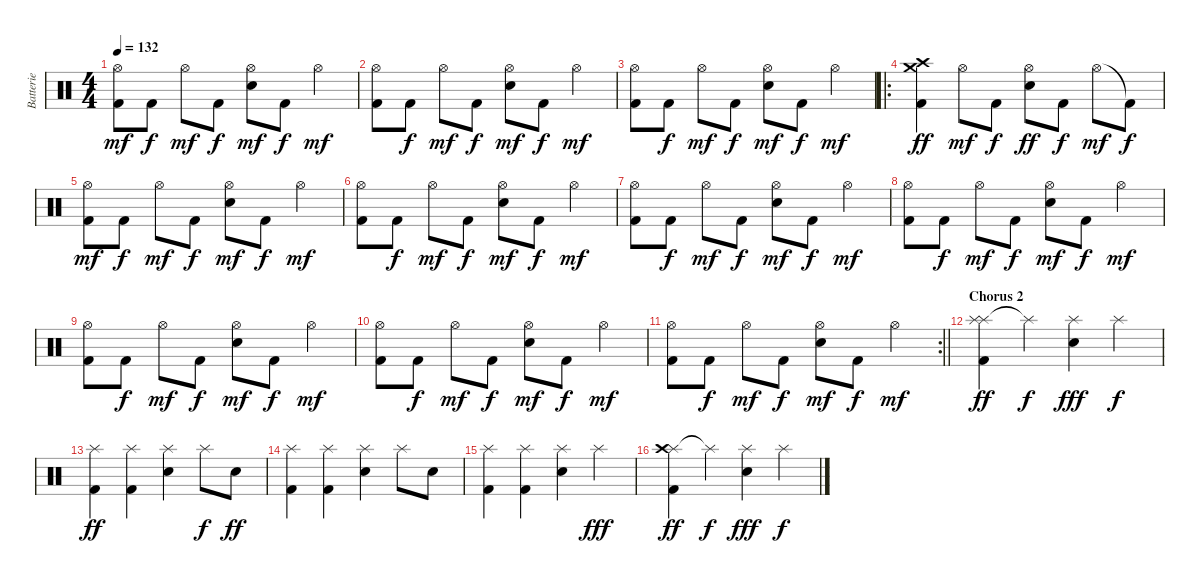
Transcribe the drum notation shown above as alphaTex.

\track ("Batterie" "Batterie") {instrument percussion}
\staff {score}
\articulation defaults
\ts (4 4)
\tempo 132
\clef neutral
\ks c
("Hi-Hat (open)" "Kick (hit) 2").8{dy mf} "Kick (hit) 2".8{dy f} "Hi-Hat (open)".8{dy mf} "Kick (hit) 2".8{dy f} ("Hi-Hat (open)" "Electric Snare (hit)").8{dy mf} "Kick (hit) 2".8{dy f} "Hi-Hat (open)".4{dy mf} |
("Hi-Hat (open)" "Kick (hit) 2").8 "Kick (hit) 2".8{dy f} "Hi-Hat (open)".8{dy mf} "Kick (hit) 2".8{dy f} ("Hi-Hat (open)" "Electric Snare (hit)").8{dy mf} "Kick (hit) 2".8{dy f} "Hi-Hat (open)".4{dy mf} |
("Hi-Hat (open)" "Kick (hit) 2").8 "Kick (hit) 2".8{dy f} "Hi-Hat (open)".8{dy mf} "Kick (hit) 2".8{dy f} ("Hi-Hat (open)" "Electric Snare (hit)").8{dy mf} "Kick (hit) 2".8{dy f} "Hi-Hat (open)".4{dy mf} |
\ro
("Crash high (hit)" "Crash medium (hit)" "Kick (hit) 2").4{dy ff} "Hi-Hat (open)".8{dy mf} "Kick (hit) 2".8{dy f} ("Hi-Hat (open)" "Electric Snare (hit)").8{dy ff} "Kick (hit) 2".8{dy f} "Hi-Hat (open)".8{dy mf} "Kick (hit) 2"{t}.8{dy f} |
("Hi-Hat (open)" "Kick (hit) 2").8{dy mf} "Kick (hit) 2".8{dy f} "Hi-Hat (open)".8{dy mf} "Kick (hit) 2".8{dy f} ("Hi-Hat (open)" "Electric Snare (hit)").8{dy mf} "Kick (hit) 2".8{dy f} "Hi-Hat (open)".4{dy mf} |
("Hi-Hat (open)" "Kick (hit) 2").8 "Kick (hit) 2".8{dy f} "Hi-Hat (open)".8{dy mf} "Kick (hit) 2".8{dy f} ("Hi-Hat (open)" "Electric Snare (hit)").8{dy mf} "Kick (hit) 2".8{dy f} "Hi-Hat (open)".4{dy mf} |
("Hi-Hat (open)" "Kick (hit) 2").8 "Kick (hit) 2".8{dy f} "Hi-Hat (open)".8{dy mf} "Kick (hit) 2".8{dy f} ("Hi-Hat (open)" "Electric Snare (hit)").8{dy mf} "Kick (hit) 2".8{dy f} "Hi-Hat (open)".4{dy mf} |
("Hi-Hat (open)" "Kick (hit) 2").8 "Kick (hit) 2".8{dy f} "Hi-Hat (open)".8{dy mf} "Kick (hit) 2".8{dy f} ("Hi-Hat (open)" "Electric Snare (hit)").8{dy mf} "Kick (hit) 2".8{dy f} "Hi-Hat (open)".4{dy mf} |
("Hi-Hat (open)" "Kick (hit) 2").8 "Kick (hit) 2".8{dy f} "Hi-Hat (open)".8{dy mf} "Kick (hit) 2".8{dy f} ("Hi-Hat (open)" "Electric Snare (hit)").8{dy mf} "Kick (hit) 2".8{dy f} "Hi-Hat (open)".4{dy mf} |
("Hi-Hat (open)" "Kick (hit) 2").8 "Kick (hit) 2".8{dy f} "Hi-Hat (open)".8{dy mf} "Kick (hit) 2".8{dy f} ("Hi-Hat (open)" "Electric Snare (hit)").8{dy mf} "Kick (hit) 2".8{dy f} "Hi-Hat (open)".4{dy mf} |
\rc 2
\barLineRight lightlight
("Hi-Hat (open)" "Kick (hit) 2").8 "Kick (hit) 2".8{dy f} "Hi-Hat (open)".8{dy mf} "Kick (hit) 2".8{dy f} ("Hi-Hat (open)" "Electric Snare (hit)").8{dy mf} "Kick (hit) 2".8{dy f} "Hi-Hat (open)".4{dy mf} |
\section ("" "Chorus 2")
("Splash (hit)" "Splash (hit)" "Kick (hit) 2").4{dy ff} "Splash (hit)"{t}.4{dy f} ("Splash (hit)" "Electric Snare (hit)").4{dy fff} "Splash (hit)".4{dy f} |
("Splash (hit)" "Kick (hit) 2").4{dy ff} ("Splash (hit)" "Kick (hit) 2").4 ("Splash (hit)" "Electric Snare (hit)").4 "Splash (hit)".8{dy f} "Electric Snare (hit)".8{dy ff} |
("Splash (hit)" "Kick (hit) 2").4 ("Splash (hit)" "Kick (hit) 2").4 ("Splash (hit)" "Electric Snare (hit)").4 "Splash (hit)".8 "Electric Snare (hit)".8 |
("Splash (hit)" "Kick (hit) 2").4 ("Splash (hit)" "Kick (hit) 2").4 ("Splash (hit)" "Electric Snare (hit)").4 "Splash (hit)".4{dy fff} |
("Splash (hit)" "Crash high (hit)" "Kick (hit) 2").4{dy ff} "Splash (hit)"{t}.4{dy f} ("Splash (hit)" "Electric Snare (hit)").4{dy fff} "Splash (hit)".4{dy f}
